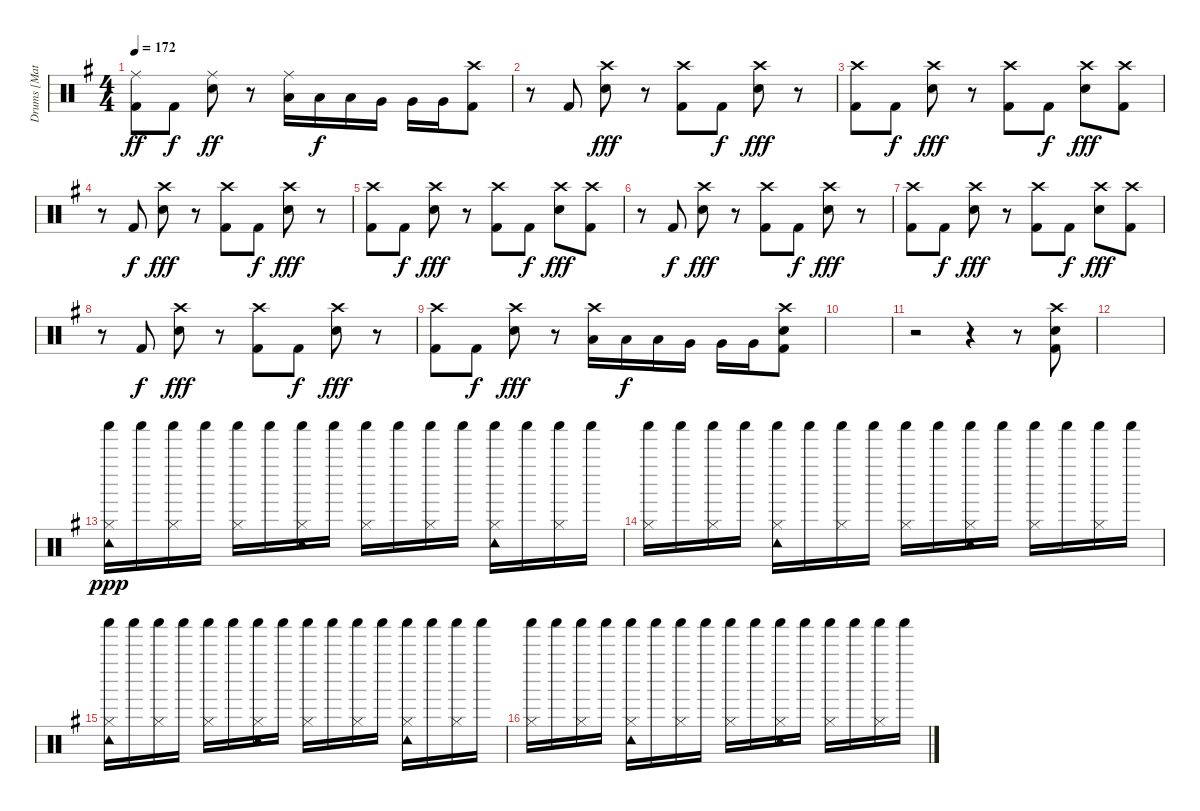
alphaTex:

\track ("Drums [Matt]" "Drums [Mat") {instrument percussion}
\staff {score}
\articulation defaults
\ts (4 4)
\tempo 172
\clef neutral
\ks g
("Ride (middle)" "Kick (hit) 2").8{dy ff} "Kick (hit) 2".8{dy f} ("Ride (middle)" "Snare (hit) 2").8{dy ff} r.8 ("Ride (middle)" "Low Tom (hit)").16 "Low Tom (hit)".16{dy f} "Low Tom (hit)".16 "Very Low Tom (hit)".16 "Very Low Tom (hit)".16 "Very Low Tom (hit)".16 ("Kick (hit) 2" "Crash high (hit)").8 |
r.8 "Kick (hit) 2".8 ("Snare (hit) 2" "Crash high (hit)").8{dy fff} r.8 ("Kick (hit) 2" "Crash high (hit)").8 "Kick (hit) 2".8{dy f} ("Snare (hit) 2" "Crash high (hit)").8{dy fff} r.8 |
("Kick (hit) 2" "Crash high (hit)").8 "Kick (hit) 2".8{dy f} ("Snare (hit) 2" "Crash high (hit)").8{dy fff} r.8 ("Kick (hit) 2" "Crash high (hit)").8 "Kick (hit) 2".8{dy f} ("Snare (hit) 2" "Crash high (hit)").8{dy fff} ("Kick (hit) 2" "Crash high (hit)").8 |
r.8 "Kick (hit) 2".8{dy f} ("Snare (hit) 2" "Crash high (hit)").8{dy fff} r.8 ("Kick (hit) 2" "Crash high (hit)").8 "Kick (hit) 2".8{dy f} ("Snare (hit) 2" "Crash high (hit)").8{dy fff} r.8 |
("Kick (hit) 2" "Crash high (hit)").8 "Kick (hit) 2".8{dy f} ("Snare (hit) 2" "Crash high (hit)").8{dy fff} r.8 ("Kick (hit) 2" "Crash high (hit)").8 "Kick (hit) 2".8{dy f} ("Snare (hit) 2" "Crash high (hit)").8{dy fff} ("Kick (hit) 2" "Crash high (hit)").8 |
r.8 "Kick (hit) 2".8{dy f} ("Snare (hit) 2" "Crash high (hit)").8{dy fff} r.8 ("Kick (hit) 2" "Crash high (hit)").8 "Kick (hit) 2".8{dy f} ("Snare (hit) 2" "Crash high (hit)").8{dy fff} r.8 |
("Kick (hit) 2" "Crash high (hit)").8 "Kick (hit) 2".8{dy f} ("Snare (hit) 2" "Crash high (hit)").8{dy fff} r.8 ("Kick (hit) 2" "Crash high (hit)").8 "Kick (hit) 2".8{dy f} ("Snare (hit) 2" "Crash high (hit)").8{dy fff} ("Kick (hit) 2" "Crash high (hit)").8 |
r.8 "Kick (hit) 2".8{dy f} ("Snare (hit) 2" "Crash high (hit)").8{dy fff} r.8 ("Kick (hit) 2" "Crash high (hit)").8 "Kick (hit) 2".8{dy f} ("Snare (hit) 2" "Crash high (hit)").8{dy fff} r.8 |
("Kick (hit) 2" "Crash high (hit)").8 "Kick (hit) 2".8{dy f} ("Snare (hit) 2" "Crash high (hit)").8{dy fff} r.8 ("Crash high (hit)" "Low Tom (hit)").16 "Low Tom (hit)".16{dy f} "Low Tom (hit)".16 "Very Low Tom (hit)".16 "Very Low Tom (hit)".16 "Very Low Tom (hit)".16 ("Kick (hit) 2" "Snare (hit) 2" "Crash high (hit)").8 |
|
r.2 r.4 r.8 ("Kick (hit) 2" "Snare (hit) 2" "Crash high (hit)").8 |
|
("Hi-Hat (closed)" "Tambourine (hit)" "Shaker (hit)").16{dy ppp volume 0} "Shaker (hit)".16 ("Hi-Hat (closed)" "Shaker (hit)").16 "Shaker (hit)".16 ("Hi-Hat (closed)" "Shaker (hit)").16 "Shaker (hit)".16 ("Hi-Hat (closed)" "Tambourine (hit)" "Shaker (hit)").16 "Shaker (hit)".16 ("Hi-Hat (closed)" "Shaker (hit)").16{volume 14} "Shaker (hit)".16 ("Hi-Hat (closed)" "Shaker (hit)").16 "Shaker (hit)".16 ("Hi-Hat (closed)" "Tambourine (hit)" "Shaker (hit)").16 "Shaker (hit)".16 ("Hi-Hat (closed)" "Shaker (hit)").16 "Shaker (hit)".16 |
("Hi-Hat (closed)" "Shaker (hit)").16 "Shaker (hit)".16 ("Hi-Hat (closed)" "Shaker (hit)").16 "Shaker (hit)".16 ("Hi-Hat (closed)" "Tambourine (hit)" "Shaker (hit)").16 "Shaker (hit)".16 ("Hi-Hat (closed)" "Shaker (hit)").16 "Shaker (hit)".16 ("Hi-Hat (closed)" "Shaker (hit)").16 "Shaker (hit)".16 ("Hi-Hat (closed)" "Tambourine (hit)" "Shaker (hit)").16 "Shaker (hit)".16 ("Hi-Hat (closed)" "Shaker (hit)").16 "Shaker (hit)".16 ("Hi-Hat (closed)" "Shaker (hit)").16 "Shaker (hit)".16 |
("Hi-Hat (closed)" "Tambourine (hit)" "Shaker (hit)").16 "Shaker (hit)".16 ("Hi-Hat (closed)" "Shaker (hit)").16 "Shaker (hit)".16 ("Hi-Hat (closed)" "Shaker (hit)").16 "Shaker (hit)".16 ("Hi-Hat (closed)" "Tambourine (hit)" "Shaker (hit)").16 "Shaker (hit)".16 ("Hi-Hat (closed)" "Shaker (hit)").16 "Shaker (hit)".16 ("Hi-Hat (closed)" "Shaker (hit)").16 "Shaker (hit)".16 ("Hi-Hat (closed)" "Tambourine (hit)" "Shaker (hit)").16 "Shaker (hit)".16 ("Hi-Hat (closed)" "Shaker (hit)").16 "Shaker (hit)".16 |
("Hi-Hat (closed)" "Shaker (hit)").16 "Shaker (hit)".16 ("Hi-Hat (closed)" "Shaker (hit)").16 "Shaker (hit)".16 ("Hi-Hat (closed)" "Tambourine (hit)" "Shaker (hit)").16 "Shaker (hit)".16 ("Hi-Hat (closed)" "Shaker (hit)").16 "Shaker (hit)".16 ("Hi-Hat (closed)" "Shaker (hit)").16 "Shaker (hit)".16 ("Hi-Hat (closed)" "Tambourine (hit)" "Shaker (hit)").16 "Shaker (hit)".16 ("Hi-Hat (closed)" "Shaker (hit)").16 "Shaker (hit)".16 ("Hi-Hat (closed)" "Shaker (hit)").16 "Shaker (hit)".16
